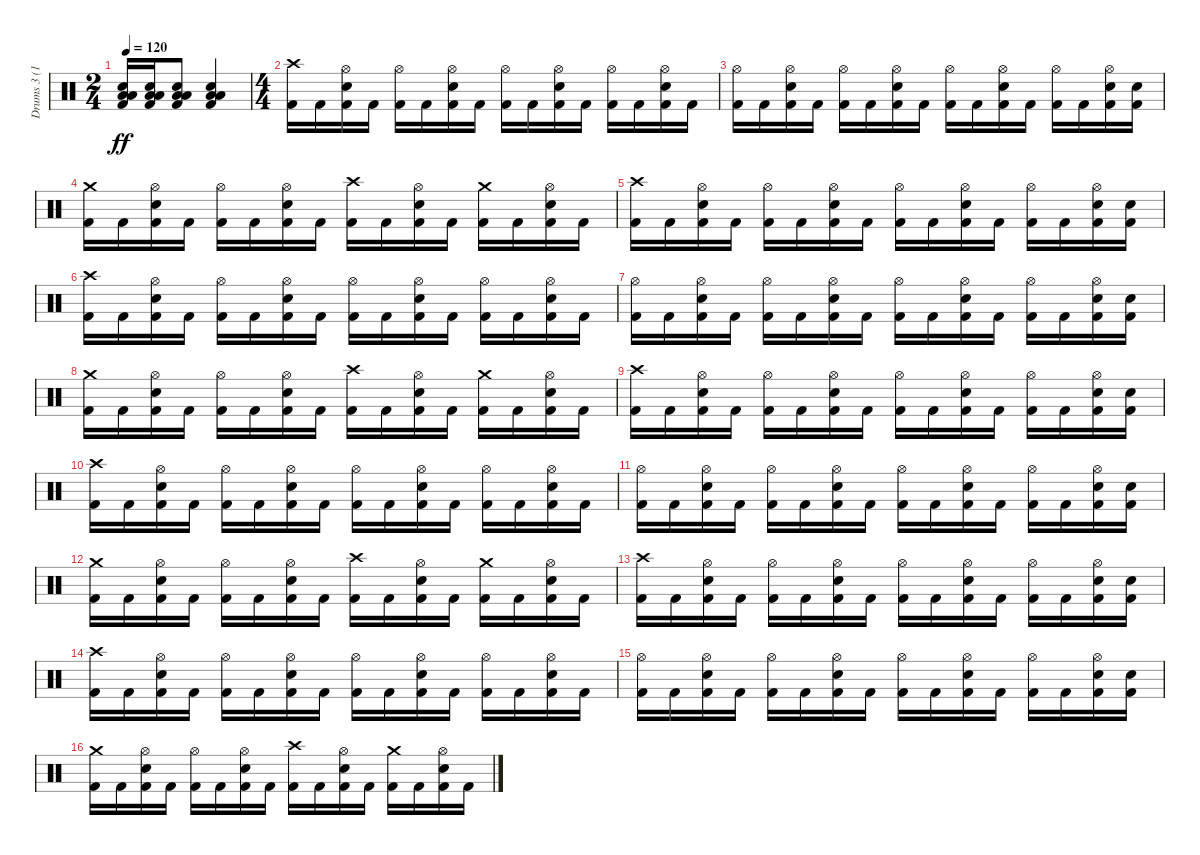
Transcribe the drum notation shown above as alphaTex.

\track ("Drums 3 (16)" "Drums 3 (1") {instrument percussion}
\staff {score}
\articulation defaults
\ts (2 4)
\tempo 120
\clef neutral
\ks c
("Kick (hit) 2" "Snare (hit) 2" "Low Floor Tom (hit)" "Low Tom (hit)").16{dy ff} ("Kick (hit) 2" "Snare (hit) 2" "Low Floor Tom (hit)" "Low Tom (hit)").16 ("Kick (hit) 2" "Snare (hit) 2" "Low Floor Tom (hit)" "Low Tom (hit)").8 ("Kick (hit) 2" "Snare (hit) 2" "Low Floor Tom (hit)" "Low Tom (hit)").4 |
\ts (4 4)
("Kick (hit) 2" "Crash high (hit)").16 "Kick (hit) 2".16 ("Kick (hit) 2" "Snare (hit) 2" "Hi-Hat (open)").16 "Kick (hit) 2".16 ("Kick (hit) 2" "Hi-Hat (open)").16 "Kick (hit) 2".16 ("Kick (hit) 2" "Snare (hit) 2" "Hi-Hat (open)").16 "Kick (hit) 2".16 ("Kick (hit) 2" "Hi-Hat (open)").16 "Kick (hit) 2".16 ("Kick (hit) 2" "Snare (hit) 2" "Hi-Hat (open)").16 "Kick (hit) 2".16 ("Kick (hit) 2" "Hi-Hat (open)").16 "Kick (hit) 2".16 ("Kick (hit) 2" "Snare (hit) 2" "Hi-Hat (open)").16 "Kick (hit) 2".16 |
("Kick (hit) 2" "Hi-Hat (open)").16 "Kick (hit) 2".16 ("Kick (hit) 2" "Snare (hit) 2" "Hi-Hat (open)").16 "Kick (hit) 2".16 ("Kick (hit) 2" "Hi-Hat (open)").16 "Kick (hit) 2".16 ("Kick (hit) 2" "Snare (hit) 2" "Hi-Hat (open)").16 "Kick (hit) 2".16 ("Kick (hit) 2" "Hi-Hat (open)").16 "Kick (hit) 2".16 ("Kick (hit) 2" "Snare (hit) 2" "Hi-Hat (open)").16 "Kick (hit) 2".16 ("Kick (hit) 2" "Hi-Hat (open)").16 "Kick (hit) 2".16 ("Kick (hit) 2" "Snare (hit) 2" "Hi-Hat (open)").16 ("Kick (hit) 2" "Snare (hit) 2").16 |
("Kick (hit) 2" "Crash medium (hit)").16 "Kick (hit) 2".16 ("Kick (hit) 2" "Snare (hit) 2" "Hi-Hat (open)").16 "Kick (hit) 2".16 ("Kick (hit) 2" "Hi-Hat (open)").16 "Kick (hit) 2".16 ("Kick (hit) 2" "Snare (hit) 2" "Hi-Hat (open)").16 "Kick (hit) 2".16 ("Kick (hit) 2" "Crash high (hit)").16 "Kick (hit) 2".16 ("Kick (hit) 2" "Snare (hit) 2" "Hi-Hat (open)").16 "Kick (hit) 2".16 ("Kick (hit) 2" "Crash medium (hit)").16 "Kick (hit) 2".16 ("Kick (hit) 2" "Snare (hit) 2" "Hi-Hat (open)").16 "Kick (hit) 2".16 |
("Kick (hit) 2" "Crash high (hit)").16 "Kick (hit) 2".16 ("Kick (hit) 2" "Snare (hit) 2" "Hi-Hat (open)").16 "Kick (hit) 2".16 ("Kick (hit) 2" "Hi-Hat (open)").16 "Kick (hit) 2".16 ("Kick (hit) 2" "Snare (hit) 2" "Hi-Hat (open)").16 "Kick (hit) 2".16 ("Kick (hit) 2" "Hi-Hat (open)").16 "Kick (hit) 2".16 ("Kick (hit) 2" "Snare (hit) 2" "Hi-Hat (open)").16 "Kick (hit) 2".16 ("Kick (hit) 2" "Hi-Hat (open)").16 "Kick (hit) 2".16 ("Kick (hit) 2" "Snare (hit) 2" "Hi-Hat (open)").16 ("Kick (hit) 2" "Snare (hit) 2").16 |
("Kick (hit) 2" "Crash high (hit)").16 "Kick (hit) 2".16 ("Kick (hit) 2" "Snare (hit) 2" "Hi-Hat (open)").16 "Kick (hit) 2".16 ("Kick (hit) 2" "Hi-Hat (open)").16 "Kick (hit) 2".16 ("Kick (hit) 2" "Snare (hit) 2" "Hi-Hat (open)").16 "Kick (hit) 2".16 ("Kick (hit) 2" "Hi-Hat (open)").16 "Kick (hit) 2".16 ("Kick (hit) 2" "Snare (hit) 2" "Hi-Hat (open)").16 "Kick (hit) 2".16 ("Kick (hit) 2" "Hi-Hat (open)").16 "Kick (hit) 2".16 ("Kick (hit) 2" "Snare (hit) 2" "Hi-Hat (open)").16 "Kick (hit) 2".16 |
("Kick (hit) 2" "Hi-Hat (open)").16 "Kick (hit) 2".16 ("Kick (hit) 2" "Snare (hit) 2" "Hi-Hat (open)").16 "Kick (hit) 2".16 ("Kick (hit) 2" "Hi-Hat (open)").16 "Kick (hit) 2".16 ("Kick (hit) 2" "Snare (hit) 2" "Hi-Hat (open)").16 "Kick (hit) 2".16 ("Kick (hit) 2" "Hi-Hat (open)").16 "Kick (hit) 2".16 ("Kick (hit) 2" "Snare (hit) 2" "Hi-Hat (open)").16 "Kick (hit) 2".16 ("Kick (hit) 2" "Hi-Hat (open)").16 "Kick (hit) 2".16 ("Kick (hit) 2" "Snare (hit) 2" "Hi-Hat (open)").16 ("Kick (hit) 2" "Snare (hit) 2").16 |
("Kick (hit) 2" "Crash medium (hit)").16 "Kick (hit) 2".16 ("Kick (hit) 2" "Snare (hit) 2" "Hi-Hat (open)").16 "Kick (hit) 2".16 ("Kick (hit) 2" "Hi-Hat (open)").16 "Kick (hit) 2".16 ("Kick (hit) 2" "Snare (hit) 2" "Hi-Hat (open)").16 "Kick (hit) 2".16 ("Kick (hit) 2" "Crash high (hit)").16 "Kick (hit) 2".16 ("Kick (hit) 2" "Snare (hit) 2" "Hi-Hat (open)").16 "Kick (hit) 2".16 ("Kick (hit) 2" "Crash medium (hit)").16 "Kick (hit) 2".16 ("Kick (hit) 2" "Snare (hit) 2" "Hi-Hat (open)").16 "Kick (hit) 2".16 |
("Kick (hit) 2" "Crash high (hit)").16 "Kick (hit) 2".16 ("Kick (hit) 2" "Snare (hit) 2" "Hi-Hat (open)").16 "Kick (hit) 2".16 ("Kick (hit) 2" "Hi-Hat (open)").16 "Kick (hit) 2".16 ("Kick (hit) 2" "Snare (hit) 2" "Hi-Hat (open)").16 "Kick (hit) 2".16 ("Kick (hit) 2" "Hi-Hat (open)").16 "Kick (hit) 2".16 ("Kick (hit) 2" "Snare (hit) 2" "Hi-Hat (open)").16 "Kick (hit) 2".16 ("Kick (hit) 2" "Hi-Hat (open)").16 "Kick (hit) 2".16 ("Kick (hit) 2" "Snare (hit) 2" "Hi-Hat (open)").16 ("Kick (hit) 2" "Snare (hit) 2").16 |
("Kick (hit) 2" "Crash high (hit)").16 "Kick (hit) 2".16 ("Kick (hit) 2" "Snare (hit) 2" "Hi-Hat (open)").16 "Kick (hit) 2".16 ("Kick (hit) 2" "Hi-Hat (open)").16 "Kick (hit) 2".16 ("Kick (hit) 2" "Snare (hit) 2" "Hi-Hat (open)").16 "Kick (hit) 2".16 ("Kick (hit) 2" "Hi-Hat (open)").16 "Kick (hit) 2".16 ("Kick (hit) 2" "Snare (hit) 2" "Hi-Hat (open)").16 "Kick (hit) 2".16 ("Kick (hit) 2" "Hi-Hat (open)").16 "Kick (hit) 2".16 ("Kick (hit) 2" "Snare (hit) 2" "Hi-Hat (open)").16 "Kick (hit) 2".16 |
("Kick (hit) 2" "Hi-Hat (open)").16 "Kick (hit) 2".16 ("Kick (hit) 2" "Snare (hit) 2" "Hi-Hat (open)").16 "Kick (hit) 2".16 ("Kick (hit) 2" "Hi-Hat (open)").16 "Kick (hit) 2".16 ("Kick (hit) 2" "Snare (hit) 2" "Hi-Hat (open)").16 "Kick (hit) 2".16 ("Kick (hit) 2" "Hi-Hat (open)").16 "Kick (hit) 2".16 ("Kick (hit) 2" "Snare (hit) 2" "Hi-Hat (open)").16 "Kick (hit) 2".16 ("Kick (hit) 2" "Hi-Hat (open)").16 "Kick (hit) 2".16 ("Kick (hit) 2" "Snare (hit) 2" "Hi-Hat (open)").16 ("Kick (hit) 2" "Snare (hit) 2").16 |
("Kick (hit) 2" "Crash medium (hit)").16 "Kick (hit) 2".16 ("Kick (hit) 2" "Snare (hit) 2" "Hi-Hat (open)").16 "Kick (hit) 2".16 ("Kick (hit) 2" "Hi-Hat (open)").16 "Kick (hit) 2".16 ("Kick (hit) 2" "Snare (hit) 2" "Hi-Hat (open)").16 "Kick (hit) 2".16 ("Kick (hit) 2" "Crash high (hit)").16 "Kick (hit) 2".16 ("Kick (hit) 2" "Snare (hit) 2" "Hi-Hat (open)").16 "Kick (hit) 2".16 ("Kick (hit) 2" "Crash medium (hit)").16 "Kick (hit) 2".16 ("Kick (hit) 2" "Snare (hit) 2" "Hi-Hat (open)").16 "Kick (hit) 2".16 |
("Kick (hit) 2" "Crash high (hit)").16 "Kick (hit) 2".16 ("Kick (hit) 2" "Snare (hit) 2" "Hi-Hat (open)").16 "Kick (hit) 2".16 ("Kick (hit) 2" "Hi-Hat (open)").16 "Kick (hit) 2".16 ("Kick (hit) 2" "Snare (hit) 2" "Hi-Hat (open)").16 "Kick (hit) 2".16 ("Kick (hit) 2" "Hi-Hat (open)").16 "Kick (hit) 2".16 ("Kick (hit) 2" "Snare (hit) 2" "Hi-Hat (open)").16 "Kick (hit) 2".16 ("Kick (hit) 2" "Hi-Hat (open)").16 "Kick (hit) 2".16 ("Kick (hit) 2" "Snare (hit) 2" "Hi-Hat (open)").16 ("Kick (hit) 2" "Snare (hit) 2").16 |
("Kick (hit) 2" "Crash high (hit)").16 "Kick (hit) 2".16 ("Kick (hit) 2" "Snare (hit) 2" "Hi-Hat (open)").16 "Kick (hit) 2".16 ("Kick (hit) 2" "Hi-Hat (open)").16 "Kick (hit) 2".16 ("Kick (hit) 2" "Snare (hit) 2" "Hi-Hat (open)").16 "Kick (hit) 2".16 ("Kick (hit) 2" "Hi-Hat (open)").16 "Kick (hit) 2".16 ("Kick (hit) 2" "Snare (hit) 2" "Hi-Hat (open)").16 "Kick (hit) 2".16 ("Kick (hit) 2" "Hi-Hat (open)").16 "Kick (hit) 2".16 ("Kick (hit) 2" "Snare (hit) 2" "Hi-Hat (open)").16 "Kick (hit) 2".16 |
("Kick (hit) 2" "Hi-Hat (open)").16 "Kick (hit) 2".16 ("Kick (hit) 2" "Snare (hit) 2" "Hi-Hat (open)").16 "Kick (hit) 2".16 ("Kick (hit) 2" "Hi-Hat (open)").16 "Kick (hit) 2".16 ("Kick (hit) 2" "Snare (hit) 2" "Hi-Hat (open)").16 "Kick (hit) 2".16 ("Kick (hit) 2" "Hi-Hat (open)").16 "Kick (hit) 2".16 ("Kick (hit) 2" "Snare (hit) 2" "Hi-Hat (open)").16 "Kick (hit) 2".16 ("Kick (hit) 2" "Hi-Hat (open)").16 "Kick (hit) 2".16 ("Kick (hit) 2" "Snare (hit) 2" "Hi-Hat (open)").16 ("Kick (hit) 2" "Snare (hit) 2").16 |
("Kick (hit) 2" "Crash medium (hit)").16 "Kick (hit) 2".16 ("Kick (hit) 2" "Snare (hit) 2" "Hi-Hat (open)").16 "Kick (hit) 2".16 ("Kick (hit) 2" "Hi-Hat (open)").16 "Kick (hit) 2".16 ("Kick (hit) 2" "Snare (hit) 2" "Hi-Hat (open)").16 "Kick (hit) 2".16 ("Kick (hit) 2" "Crash high (hit)").16 "Kick (hit) 2".16 ("Kick (hit) 2" "Snare (hit) 2" "Hi-Hat (open)").16 "Kick (hit) 2".16 ("Kick (hit) 2" "Crash medium (hit)").16 "Kick (hit) 2".16 ("Kick (hit) 2" "Snare (hit) 2" "Hi-Hat (open)").16 "Kick (hit) 2".16
